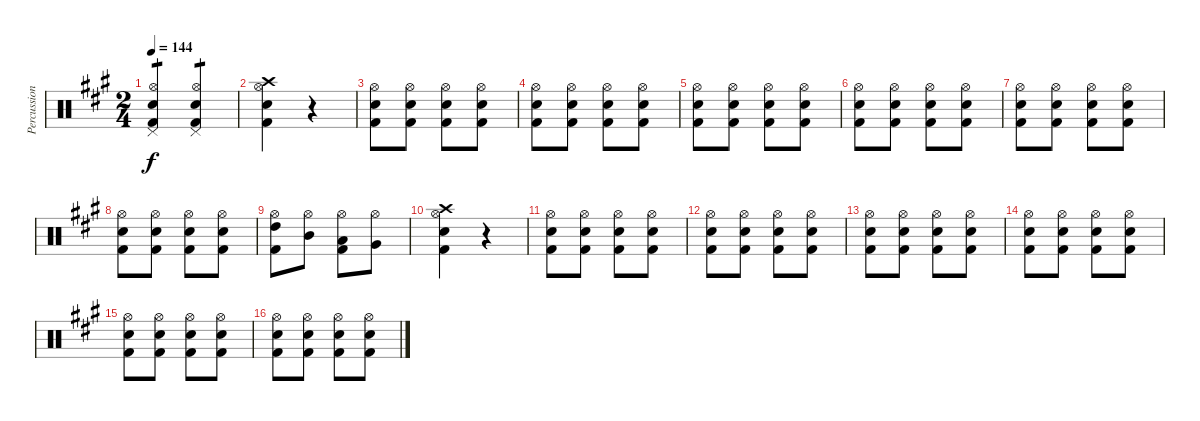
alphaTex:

\track ("Percussion" "Percussion") {instrument percussion}
\staff {score}
\articulation defaults
\ts (2 4)
\tempo 144
\clef neutral
\ks a
("Pedal Hi-Hat (hit)" "Hi-Hat (open)" "Snare (hit) 2" "Kick (hit) 2").4{tp 1 dy f} ("Pedal Hi-Hat (hit)" "Hi-Hat (open)" "Snare (hit) 2" "Kick (hit) 2").4{tp 1} |
("Crash high (hit)" "Hi-Hat (open)" "Snare (hit) 2" "Kick (hit) 2").4 r.4 |
("Hi-Hat (open)" "Snare (hit) 2" "Kick (hit) 2").8 ("Hi-Hat (open)" "Snare (hit) 2" "Kick (hit) 2").8 ("Hi-Hat (open)" "Snare (hit) 2" "Kick (hit) 2").8 ("Hi-Hat (open)" "Snare (hit) 2" "Kick (hit) 2").8 |
("Hi-Hat (open)" "Snare (hit) 2" "Kick (hit) 2").8 ("Hi-Hat (open)" "Snare (hit) 2" "Kick (hit) 2").8 ("Hi-Hat (open)" "Snare (hit) 2" "Kick (hit) 2").8 ("Hi-Hat (open)" "Snare (hit) 2" "Kick (hit) 2").8 |
("Hi-Hat (open)" "Snare (hit) 2" "Kick (hit) 2").8 ("Hi-Hat (open)" "Snare (hit) 2" "Kick (hit) 2").8 ("Hi-Hat (open)" "Snare (hit) 2" "Kick (hit) 2").8 ("Hi-Hat (open)" "Snare (hit) 2" "Kick (hit) 2").8 |
("Hi-Hat (open)" "Snare (hit) 2" "Kick (hit) 2").8 ("Hi-Hat (open)" "Snare (hit) 2" "Kick (hit) 2").8 ("Hi-Hat (open)" "Snare (hit) 2" "Kick (hit) 2").8 ("Hi-Hat (open)" "Snare (hit) 2" "Kick (hit) 2").8 |
("Hi-Hat (open)" "Snare (hit) 2" "Kick (hit) 2").8 ("Hi-Hat (open)" "Snare (hit) 2" "Kick (hit) 2").8 ("Hi-Hat (open)" "Snare (hit) 2" "Kick (hit) 2").8 ("Hi-Hat (open)" "Snare (hit) 2" "Kick (hit) 2").8 |
("Hi-Hat (open)" "Snare (hit) 2" "Kick (hit) 2").8 ("Hi-Hat (open)" "Snare (hit) 2" "Kick (hit) 2").8 ("Hi-Hat (open)" "Snare (hit) 2" "Kick (hit) 2").8 ("Hi-Hat (open)" "Snare (hit) 2" "Kick (hit) 2").8 |
("Hi-Hat (open)" "High Tom (hit)" "Kick (hit) 2").8 ("Hi-Hat (open)" "Mid Tom (hit)").8 ("Hi-Hat (open)" "Low Tom (hit)" "Kick (hit) 2").8 ("Hi-Hat (open)" "Very Low Tom (hit)").8 |
("Crash high (hit)" "Hi-Hat (open)" "Snare (hit) 2" "Kick (hit) 2").4 r.4 |
("Hi-Hat (open)" "Snare (hit) 2" "Kick (hit) 2").8 ("Hi-Hat (open)" "Snare (hit) 2" "Kick (hit) 2").8 ("Hi-Hat (open)" "Snare (hit) 2" "Kick (hit) 2").8 ("Hi-Hat (open)" "Snare (hit) 2" "Kick (hit) 2").8 |
("Hi-Hat (open)" "Snare (hit) 2" "Kick (hit) 2").8 ("Hi-Hat (open)" "Snare (hit) 2" "Kick (hit) 2").8 ("Hi-Hat (open)" "Snare (hit) 2" "Kick (hit) 2").8 ("Hi-Hat (open)" "Snare (hit) 2" "Kick (hit) 2").8 |
("Hi-Hat (open)" "Snare (hit) 2" "Kick (hit) 2").8 ("Hi-Hat (open)" "Snare (hit) 2" "Kick (hit) 2").8 ("Hi-Hat (open)" "Snare (hit) 2" "Kick (hit) 2").8 ("Hi-Hat (open)" "Snare (hit) 2" "Kick (hit) 2").8 |
("Hi-Hat (open)" "Snare (hit) 2" "Kick (hit) 2").8 ("Hi-Hat (open)" "Snare (hit) 2" "Kick (hit) 2").8 ("Hi-Hat (open)" "Snare (hit) 2" "Kick (hit) 2").8 ("Hi-Hat (open)" "Snare (hit) 2" "Kick (hit) 2").8 |
("Hi-Hat (open)" "Snare (hit) 2" "Kick (hit) 2").8 ("Hi-Hat (open)" "Snare (hit) 2" "Kick (hit) 2").8 ("Hi-Hat (open)" "Snare (hit) 2" "Kick (hit) 2").8 ("Hi-Hat (open)" "Snare (hit) 2" "Kick (hit) 2").8 |
("Hi-Hat (open)" "Snare (hit) 2" "Kick (hit) 2").8 ("Hi-Hat (open)" "Snare (hit) 2" "Kick (hit) 2").8 ("Hi-Hat (open)" "Snare (hit) 2" "Kick (hit) 2").8 ("Hi-Hat (open)" "Snare (hit) 2" "Kick (hit) 2").8
